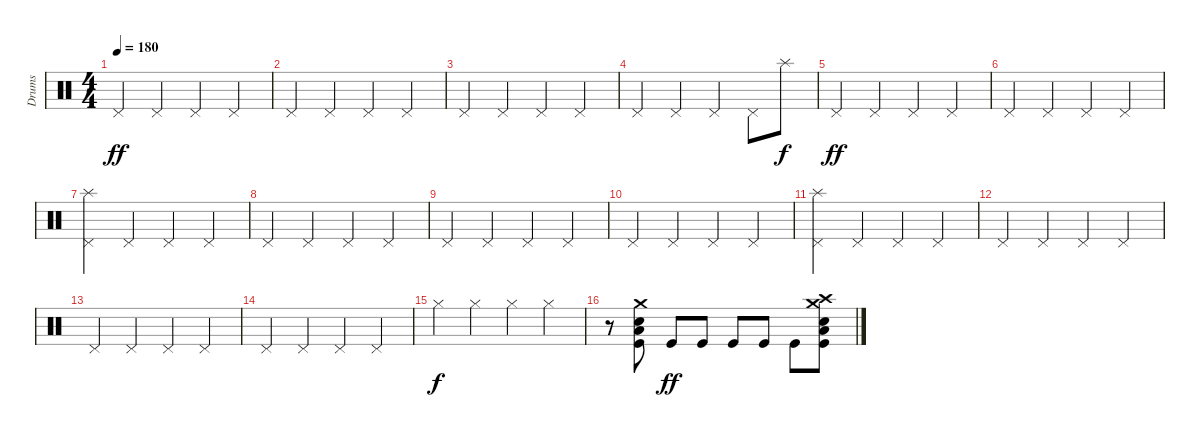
\track ("Drums" "Drums") {instrument percussion}
\staff {score}
\articulation defaults
\ts (4 4)
\tempo 180
\clef neutral
\ks c "Pedal Hi-Hat (hit)".4{dy ff} "Pedal Hi-Hat (hit)".4 "Pedal Hi-Hat (hit)".4 "Pedal Hi-Hat (hit)".4
|
"Pedal Hi-Hat (hit)".4 "Pedal Hi-Hat (hit)".4 "Pedal Hi-Hat (hit)".4 "Pedal Hi-Hat (hit)".4 |
"Pedal Hi-Hat (hit)".4 "Pedal Hi-Hat (hit)".4 "Pedal Hi-Hat (hit)".4 "Pedal Hi-Hat (hit)".4 |
"Pedal Hi-Hat (hit)".4 "Pedal Hi-Hat (hit)".4 "Pedal Hi-Hat (hit)".4 "Pedal Hi-Hat (hit)".8 "Splash (hit)".8{dy f} |
"Pedal Hi-Hat (hit)".4{dy ff} "Pedal Hi-Hat (hit)".4 "Pedal Hi-Hat (hit)".4 "Pedal Hi-Hat (hit)".4 |
"Pedal Hi-Hat (hit)".4 "Pedal Hi-Hat (hit)".4 "Pedal Hi-Hat (hit)".4 "Pedal Hi-Hat (hit)".4 |
("Splash (hit)" "Pedal Hi-Hat (hit)").4 "Pedal Hi-Hat (hit)".4 "Pedal Hi-Hat (hit)".4 "Pedal Hi-Hat (hit)".4 |
"Pedal Hi-Hat (hit)".4 "Pedal Hi-Hat (hit)".4 "Pedal Hi-Hat (hit)".4 "Pedal Hi-Hat (hit)".4 |
"Pedal Hi-Hat (hit)".4 "Pedal Hi-Hat (hit)".4 "Pedal Hi-Hat (hit)".4 "Pedal Hi-Hat (hit)".4 |
"Pedal Hi-Hat (hit)".4 "Pedal Hi-Hat (hit)".4 "Pedal Hi-Hat (hit)".4 "Pedal Hi-Hat (hit)".4 |
("Splash (hit)" "Pedal Hi-Hat (hit)").4 "Pedal Hi-Hat (hit)".4 "Pedal Hi-Hat (hit)".4 "Pedal Hi-Hat (hit)".4 |
"Pedal Hi-Hat (hit)".4 "Pedal Hi-Hat (hit)".4 "Pedal Hi-Hat (hit)".4 "Pedal Hi-Hat (hit)".4 |
"Pedal Hi-Hat (hit)".4 "Pedal Hi-Hat (hit)".4 "Pedal Hi-Hat (hit)".4 "Pedal Hi-Hat (hit)".4 |
"Pedal Hi-Hat (hit)".4 "Pedal Hi-Hat (hit)".4 "Pedal Hi-Hat (hit)".4 "Pedal Hi-Hat (hit)".4 |
"Hi-Hat (closed)".4{dy f} "Hi-Hat (closed)".4 "Hi-Hat (closed)".4 "Hi-Hat (closed)".4 |
r.8 ("Crash medium (hit)" "Low Tom (hit)" "Electric Snare (hit)" "Kick (hit)").8 "Kick (hit)".8{dy ff} "Kick (hit)".8 "Kick (hit)".8 "Kick (hit)".8 "Kick (hit)".8 ("Crash high (hit)" "Crash medium (hit)" "Low Tom (hit)" "Electric Snare (hit)" "Kick (hit)").8
